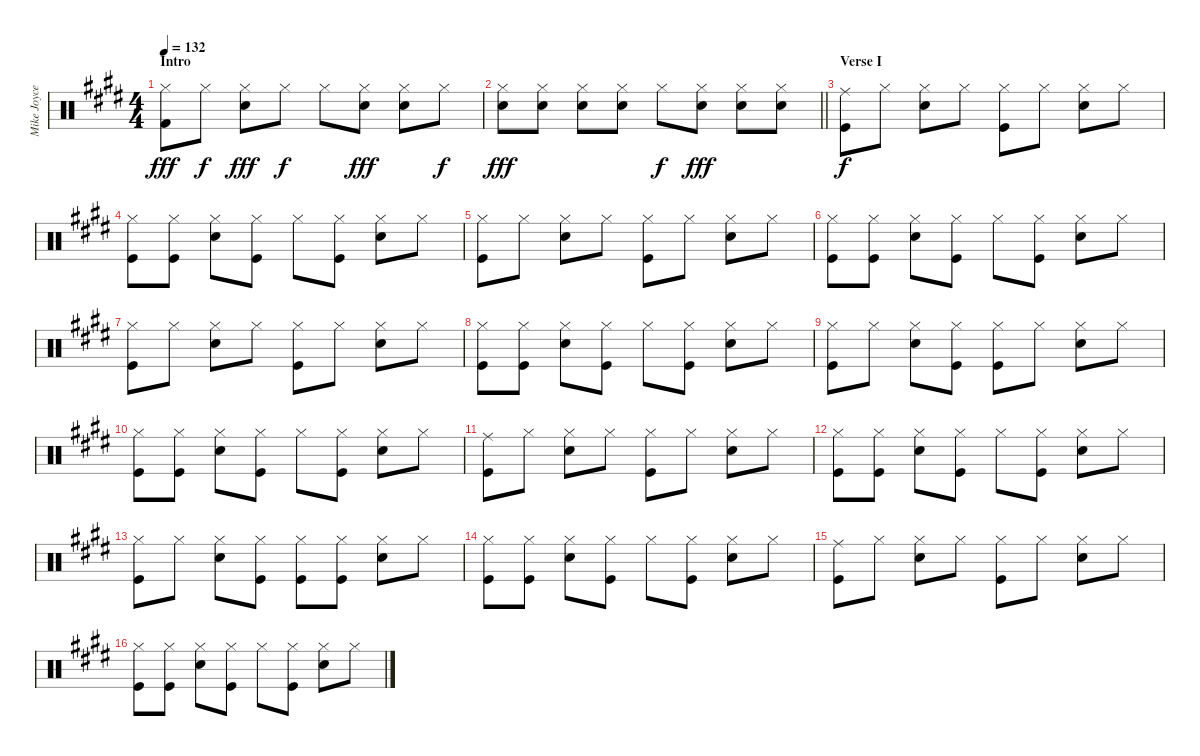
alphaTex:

\track ("Mike Joyce's drums" "Mike Joyce") {instrument percussion}
\staff {score}
\articulation defaults
\ts (4 4)
\section ("" "Intro")
\tempo 132
\clef neutral
\ks e
("Hi-Hat (closed)" "Kick (hit) 2").8{dy fff} "Hi-Hat (closed)".8{dy f} ("Hi-Hat (closed)" "Snare (hit) 2").8{dy fff} "Hi-Hat (closed)".8{dy f} "Hi-Hat (closed)".8 ("Hi-Hat (closed)" "Snare (hit) 2").8{dy fff} ("Hi-Hat (closed)" "Snare (hit) 2").8 "Hi-Hat (closed)".8{dy f} |
\barLineRight lightlight
("Hi-Hat (closed)" "Snare (hit) 2").8{dy fff} ("Hi-Hat (closed)" "Snare (hit) 2").8 ("Hi-Hat (closed)" "Snare (hit) 2").8 ("Hi-Hat (closed)" "Snare (hit) 2").8 "Hi-Hat (closed)".8{dy f} ("Hi-Hat (closed)" "Snare (hit) 2").8{dy fff} ("Hi-Hat (closed)" "Snare (hit) 2").8 ("Hi-Hat (closed)" "Snare (hit) 2").8 |
\section ("" "Verse I")
("Kick (hit)" "Ride (middle)").8{dy f} "Hi-Hat (closed)".8 ("Hi-Hat (closed)" "Snare (hit) 2").8 "Hi-Hat (closed)".8 ("Hi-Hat (closed)" "Kick (hit)").8 "Hi-Hat (closed)".8 ("Hi-Hat (closed)" "Snare (hit) 2").8 "Hi-Hat (closed)".8 |
("Hi-Hat (closed)" "Kick (hit)").8 ("Kick (hit)" "Hi-Hat (closed)").8 ("Hi-Hat (closed)" "Snare (hit) 2").8 ("Kick (hit)" "Hi-Hat (closed)").8 "Hi-Hat (closed)".8 ("Hi-Hat (closed)" "Kick (hit)").8 ("Snare (hit) 2" "Hi-Hat (closed)").8 "Hi-Hat (closed)".8 |
("Hi-Hat (closed)" "Kick (hit)").8 "Hi-Hat (closed)".8 ("Hi-Hat (closed)" "Snare (hit) 2").8 "Hi-Hat (closed)".8 ("Hi-Hat (closed)" "Kick (hit)").8 "Hi-Hat (closed)".8 ("Hi-Hat (closed)" "Snare (hit) 2").8 "Hi-Hat (closed)".8 |
("Hi-Hat (closed)" "Kick (hit)").8 ("Kick (hit)" "Hi-Hat (closed)").8 ("Hi-Hat (closed)" "Snare (hit) 2").8 ("Kick (hit)" "Hi-Hat (closed)").8 "Hi-Hat (closed)".8 ("Hi-Hat (closed)" "Kick (hit)").8 ("Snare (hit) 2" "Hi-Hat (closed)").8 "Hi-Hat (closed)".8 |
("Hi-Hat (closed)" "Kick (hit)").8 "Hi-Hat (closed)".8 ("Hi-Hat (closed)" "Snare (hit) 2").8 "Hi-Hat (closed)".8 ("Hi-Hat (closed)" "Kick (hit)").8 "Hi-Hat (closed)".8 ("Hi-Hat (closed)" "Snare (hit) 2").8 "Hi-Hat (closed)".8 |
("Hi-Hat (closed)" "Kick (hit)").8 ("Kick (hit)" "Hi-Hat (closed)").8 ("Hi-Hat (closed)" "Snare (hit) 2").8 ("Kick (hit)" "Hi-Hat (closed)").8 "Hi-Hat (closed)".8 ("Kick (hit)" "Hi-Hat (closed)").8 ("Snare (hit) 2" "Hi-Hat (closed)").8 "Hi-Hat (closed)".8 |
("Kick (hit)" "Hi-Hat (closed)").8 "Hi-Hat (closed)".8 ("Hi-Hat (closed)" "Snare (hit) 2").8 ("Kick (hit)" "Hi-Hat (closed)").8 ("Hi-Hat (closed)" "Kick (hit)").8 "Hi-Hat (closed)".8 ("Hi-Hat (closed)" "Snare (hit) 2").8 "Hi-Hat (closed)".8 |
("Hi-Hat (closed)" "Kick (hit)").8 ("Kick (hit)" "Hi-Hat (closed)").8 ("Hi-Hat (closed)" "Snare (hit) 2").8 ("Kick (hit)" "Hi-Hat (closed)").8 "Hi-Hat (closed)".8 ("Kick (hit)" "Hi-Hat (closed)").8 ("Hi-Hat (closed)" "Snare (hit) 2").8 "Hi-Hat (closed)".8 |
("Ride (middle)" "Kick (hit)").8 "Hi-Hat (closed)".8 ("Snare (hit) 2" "Hi-Hat (closed)").8 "Hi-Hat (closed)".8 ("Hi-Hat (closed)" "Kick (hit)").8 "Hi-Hat (closed)".8 ("Hi-Hat (closed)" "Snare (hit) 2").8 "Hi-Hat (closed)".8 |
("Hi-Hat (closed)" "Kick (hit)").8 ("Kick (hit)" "Hi-Hat (closed)").8 ("Hi-Hat (closed)" "Snare (hit) 2").8 ("Kick (hit)" "Hi-Hat (closed)").8 "Hi-Hat (closed)".8 ("Hi-Hat (closed)" "Kick (hit)").8 ("Snare (hit) 2" "Hi-Hat (closed)").8 "Hi-Hat (closed)".8 |
("Hi-Hat (closed)" "Kick (hit)").8 "Hi-Hat (closed)".8 ("Hi-Hat (closed)" "Snare (hit) 2").8 ("Hi-Hat (closed)" "Kick (hit)").8 ("Kick (hit)" "Hi-Hat (closed)").8 ("Kick (hit)" "Hi-Hat (closed)").8 ("Snare (hit) 2" "Hi-Hat (closed)").8 "Hi-Hat (closed)".8 |
("Hi-Hat (closed)" "Kick (hit)").8 ("Kick (hit)" "Hi-Hat (closed)").8 ("Hi-Hat (closed)" "Snare (hit) 2").8 ("Kick (hit)" "Hi-Hat (closed)").8 "Hi-Hat (closed)".8 ("Hi-Hat (closed)" "Kick (hit)").8 ("Snare (hit) 2" "Hi-Hat (closed)").8 "Hi-Hat (closed)".8 |
("Ride (middle)" "Kick (hit)").8 "Hi-Hat (closed)".8 ("Snare (hit) 2" "Hi-Hat (closed)").8 "Hi-Hat (closed)".8 ("Hi-Hat (closed)" "Kick (hit)").8 "Hi-Hat (closed)".8 ("Hi-Hat (closed)" "Snare (hit) 2").8 "Hi-Hat (closed)".8 |
("Hi-Hat (closed)" "Kick (hit)").8 ("Kick (hit)" "Hi-Hat (closed)").8 ("Hi-Hat (closed)" "Snare (hit) 2").8 ("Kick (hit)" "Hi-Hat (closed)").8 "Hi-Hat (closed)".8 ("Hi-Hat (closed)" "Kick (hit)").8 ("Snare (hit) 2" "Hi-Hat (closed)").8 "Hi-Hat (closed)".8
